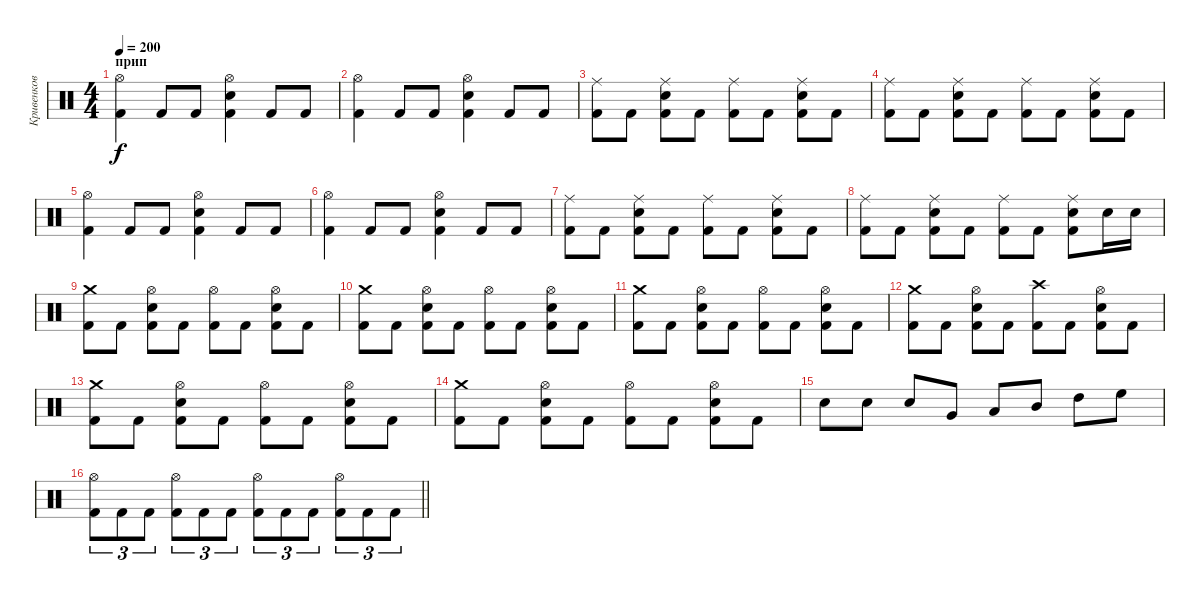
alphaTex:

\track ("Кривенков" "Кривенков") {instrument percussion}
\staff {score}
\articulation defaults
\ts (4 4)
\section ("" "прип")
\tempo 200
\clef neutral
\ks c
("Hi-Hat (open)" "Kick (hit) 2").4{dy f} "Kick (hit) 2".8 "Kick (hit) 2".8 ("Hi-Hat (open)" "Electric Snare (hit)" "Kick (hit) 2").4 "Kick (hit) 2".8 "Kick (hit) 2".8 |
("Hi-Hat (open)" "Kick (hit) 2").4 "Kick (hit) 2".8 "Kick (hit) 2".8 ("Hi-Hat (open)" "Electric Snare (hit)" "Kick (hit) 2").4 "Kick (hit) 2".8 "Kick (hit) 2".8 |
("Ride (middle)" "Kick (hit) 2").8 "Kick (hit) 2".8 ("Ride (middle)" "Electric Snare (hit)" "Kick (hit) 2").8 "Kick (hit) 2".8 ("Ride (middle)" "Kick (hit) 2").8 "Kick (hit) 2".8 ("Ride (middle)" "Electric Snare (hit)" "Kick (hit) 2").8 "Kick (hit) 2".8 |
("Ride (middle)" "Kick (hit) 2").8 "Kick (hit) 2".8 ("Ride (middle)" "Electric Snare (hit)" "Kick (hit) 2").8 "Kick (hit) 2".8 ("Ride (middle)" "Kick (hit) 2").8 "Kick (hit) 2".8 ("Ride (middle)" "Electric Snare (hit)" "Kick (hit) 2").8 "Kick (hit) 2".8 |
("Hi-Hat (open)" "Kick (hit) 2").4 "Kick (hit) 2".8 "Kick (hit) 2".8 ("Hi-Hat (open)" "Electric Snare (hit)" "Kick (hit) 2").4 "Kick (hit) 2".8 "Kick (hit) 2".8 |
("Hi-Hat (open)" "Kick (hit) 2").4 "Kick (hit) 2".8 "Kick (hit) 2".8 ("Hi-Hat (open)" "Electric Snare (hit)" "Kick (hit) 2").4 "Kick (hit) 2".8 "Kick (hit) 2".8 |
("Ride (middle)" "Kick (hit) 2").8 "Kick (hit) 2".8 ("Ride (middle)" "Electric Snare (hit)" "Kick (hit) 2").8 "Kick (hit) 2".8 ("Ride (middle)" "Kick (hit) 2").8 "Kick (hit) 2".8 ("Ride (middle)" "Electric Snare (hit)" "Kick (hit) 2").8 "Kick (hit) 2".8 |
("Ride (middle)" "Kick (hit) 2").8 "Kick (hit) 2".8 ("Ride (middle)" "Electric Snare (hit)" "Kick (hit) 2").8 "Kick (hit) 2".8 ("Ride (middle)" "Kick (hit) 2").8 "Kick (hit) 2".8 ("Ride (middle)" "Electric Snare (hit)" "Kick (hit) 2").8 "Electric Snare (hit)".16 "Electric Snare (hit)".16 |
("Crash medium (hit)" "Kick (hit) 2").8 "Kick (hit) 2".8 ("Hi-Hat (open)" "Electric Snare (hit)" "Kick (hit) 2").8 "Kick (hit) 2".8 ("Hi-Hat (open)" "Kick (hit) 2").8 "Kick (hit) 2".8 ("Hi-Hat (open)" "Electric Snare (hit)" "Kick (hit) 2").8 "Kick (hit) 2".8 |
("Crash medium (hit)" "Kick (hit) 2").8 "Kick (hit) 2".8 ("Hi-Hat (open)" "Electric Snare (hit)" "Kick (hit) 2").8 "Kick (hit) 2".8 ("Hi-Hat (open)" "Kick (hit) 2").8 "Kick (hit) 2".8 ("Hi-Hat (open)" "Electric Snare (hit)" "Kick (hit) 2").8 "Kick (hit) 2".8 |
("Crash medium (hit)" "Kick (hit) 2").8 "Kick (hit) 2".8 ("Hi-Hat (open)" "Electric Snare (hit)" "Kick (hit) 2").8 "Kick (hit) 2".8 ("Hi-Hat (open)" "Kick (hit) 2").8 "Kick (hit) 2".8 ("Hi-Hat (open)" "Electric Snare (hit)" "Kick (hit) 2").8 "Kick (hit) 2".8 |
("Crash medium (hit)" "Kick (hit) 2").8 "Kick (hit) 2".8 ("Hi-Hat (open)" "Electric Snare (hit)" "Kick (hit) 2").8 "Kick (hit) 2".8 ("Crash high (hit)" "Kick (hit) 2").8 "Kick (hit) 2".8 ("Hi-Hat (open)" "Electric Snare (hit)" "Kick (hit) 2").8 "Kick (hit) 2".8 |
("Crash medium (hit)" "Kick (hit) 2").8 "Kick (hit) 2".8 ("Hi-Hat (open)" "Electric Snare (hit)" "Kick (hit) 2").8 "Kick (hit) 2".8 ("Hi-Hat (open)" "Kick (hit) 2").8 "Kick (hit) 2".8 ("Hi-Hat (open)" "Electric Snare (hit)" "Kick (hit) 2").8 "Kick (hit) 2".8 |
("Crash medium (hit)" "Kick (hit) 2").8 "Kick (hit) 2".8 ("Hi-Hat (open)" "Electric Snare (hit)" "Kick (hit) 2").8 "Kick (hit) 2".8 ("Hi-Hat (open)" "Kick (hit) 2").8 "Kick (hit) 2".8 ("Hi-Hat (open)" "Electric Snare (hit)" "Kick (hit) 2").8 "Kick (hit) 2".8 |
"Electric Snare (hit)".8 "Electric Snare (hit)".8 "Electric Snare (hit)".8 "Very Low Tom (hit)".8 "Low Tom (hit)".8 "Mid Tom (hit)".8 "High Tom (hit)".8 "High Floor Tom (hit)".8 |
\barLineRight lightlight
("Hi-Hat (open)" "Kick (hit) 2").8{tu (3 2)} "Kick (hit) 2".8{tu (3 2)} "Kick (hit) 2".8{tu (3 2)} ("Hi-Hat (open)" "Kick (hit) 2").8{tu (3 2)} "Kick (hit) 2".8{tu (3 2)} "Kick (hit) 2".8{tu (3 2)} ("Hi-Hat (open)" "Kick (hit) 2").8{tu (3 2)} "Kick (hit) 2".8{tu (3 2)} "Kick (hit) 2".8{tu (3 2)} ("Hi-Hat (open)" "Kick (hit) 2").8{tu (3 2)} "Kick (hit) 2".8{tu (3 2)} "Kick (hit) 2".8{tu (3 2)}
